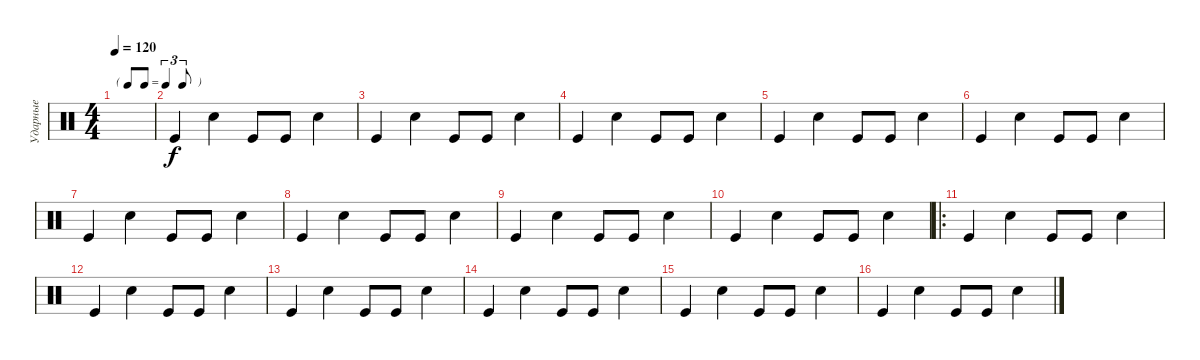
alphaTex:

\track ("Ударные" "Ударные") {instrument percussion}
\staff {score}
\articulation defaults
\ts (4 4)
\tf triplet8th
\tempo 120
\clef neutral
\ks c
|
"Kick (hit)".4 "Snare (hit) 2".4 "Kick (hit)".8 "Kick (hit)".8 "Snare (hit) 2".4 |
"Kick (hit)".4 "Snare (hit) 2".4 "Kick (hit)".8 "Kick (hit)".8 "Snare (hit) 2".4 |
"Kick (hit)".4 "Snare (hit) 2".4 "Kick (hit)".8 "Kick (hit)".8 "Snare (hit) 2".4 |
"Kick (hit)".4 "Snare (hit) 2".4 "Kick (hit)".8 "Kick (hit)".8 "Snare (hit) 2".4 |
"Kick (hit)".4 "Snare (hit) 2".4 "Kick (hit)".8 "Kick (hit)".8 "Snare (hit) 2".4 |
"Kick (hit)".4 "Snare (hit) 2".4 "Kick (hit)".8 "Kick (hit)".8 "Snare (hit) 2".4 |
"Kick (hit)".4 "Snare (hit) 2".4 "Kick (hit)".8 "Kick (hit)".8 "Snare (hit) 2".4 |
"Kick (hit)".4 "Snare (hit) 2".4 "Kick (hit)".8 "Kick (hit)".8 "Snare (hit) 2".4 |
"Kick (hit)".4 "Snare (hit) 2".4 "Kick (hit)".8 "Kick (hit)".8 "Snare (hit) 2".4 |
\ro "Kick (hit)".4 "Snare (hit) 2".4 "Kick (hit)".8 "Kick (hit)".8 "Snare (hit) 2".4
|
"Kick (hit)".4 "Snare (hit) 2".4 "Kick (hit)".8 "Kick (hit)".8 "Snare (hit) 2".4 |
"Kick (hit)".4 "Snare (hit) 2".4 "Kick (hit)".8 "Kick (hit)".8 "Snare (hit) 2".4 |
"Kick (hit)".4 "Snare (hit) 2".4 "Kick (hit)".8 "Kick (hit)".8 "Snare (hit) 2".4 |
"Kick (hit)".4 "Snare (hit) 2".4 "Kick (hit)".8 "Kick (hit)".8 "Snare (hit) 2".4 |
"Kick (hit)".4 "Snare (hit) 2".4 "Kick (hit)".8 "Kick (hit)".8 "Snare (hit) 2".4
